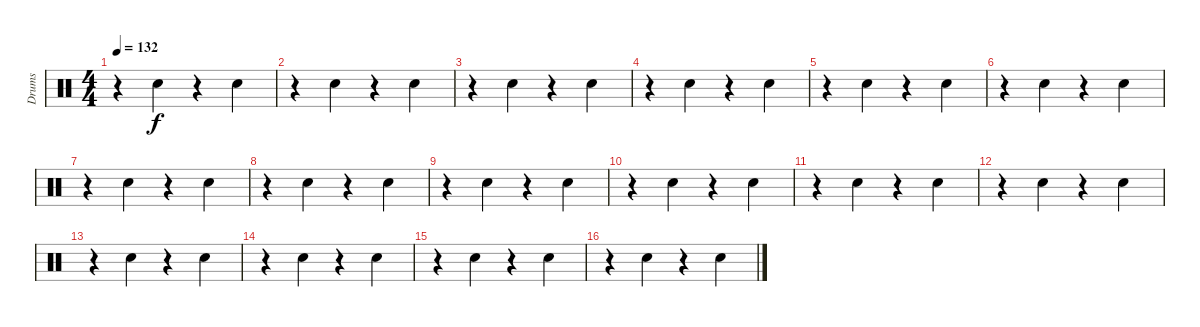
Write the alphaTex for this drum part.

\track ("Drums" "Drums") {instrument percussion}
\staff {score}
\articulation defaults
\ts (4 4)
\tempo 132
\clef neutral
\ks c
r.4{dy f} "Electric Snare (hit)".4 r.4 "Electric Snare (hit)".4 |
r.4 "Electric Snare (hit)".4 r.4 "Electric Snare (hit)".4 |
r.4 "Electric Snare (hit)".4 r.4 "Electric Snare (hit)".4 |
r.4 "Electric Snare (hit)".4 r.4 "Electric Snare (hit)".4 |
r.4 "Electric Snare (hit)".4 r.4 "Electric Snare (hit)".4 |
r.4 "Electric Snare (hit)".4 r.4 "Electric Snare (hit)".4 |
r.4 "Electric Snare (hit)".4 r.4 "Electric Snare (hit)".4 |
r.4 "Electric Snare (hit)".4 r.4 "Electric Snare (hit)".4 |
r.4 "Electric Snare (hit)".4 r.4 "Electric Snare (hit)".4 |
r.4 "Electric Snare (hit)".4 r.4 "Electric Snare (hit)".4 |
r.4 "Electric Snare (hit)".4 r.4 "Electric Snare (hit)".4 |
r.4 "Electric Snare (hit)".4 r.4 "Electric Snare (hit)".4 |
r.4 "Electric Snare (hit)".4 r.4 "Electric Snare (hit)".4 |
r.4 "Electric Snare (hit)".4 r.4 "Electric Snare (hit)".4 |
r.4 "Electric Snare (hit)".4 r.4 "Electric Snare (hit)".4 |
r.4 "Electric Snare (hit)".4 r.4 "Electric Snare (hit)".4
